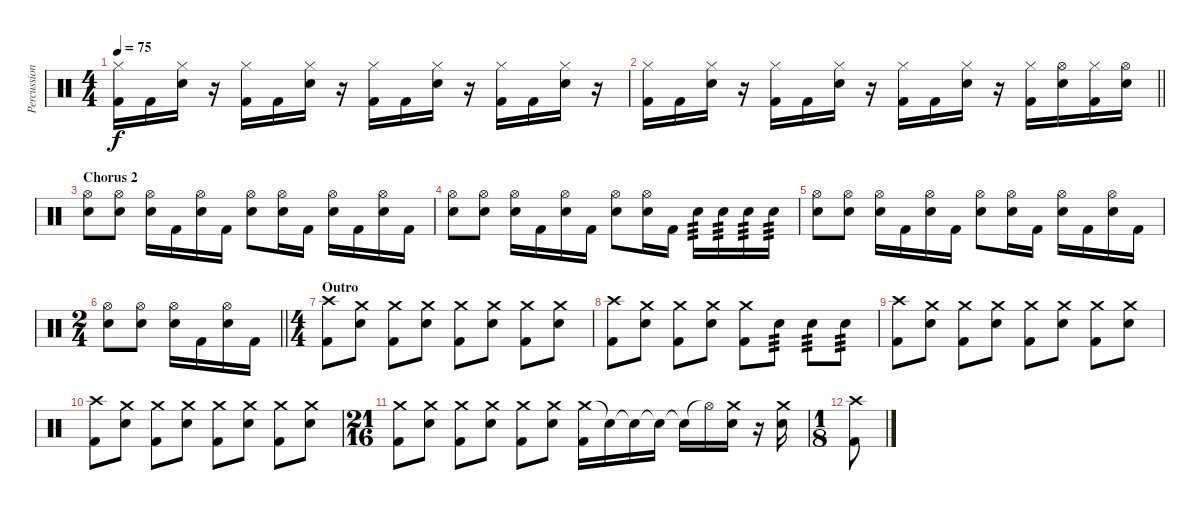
\track ("Percussion" "Percussion") {instrument percussion}
\staff {score}
\articulation defaults
\ts (4 4)
\tempo 75
\clef neutral
\ks c
("Hi-Hat (closed)" "Kick (hit) 2").16{dy f} "Kick (hit) 2".16 ("Hi-Hat (closed)" "Electric Snare (hit)").16 r.16 ("Hi-Hat (closed)" "Kick (hit) 2").16 "Kick (hit) 2".16 ("Hi-Hat (closed)" "Electric Snare (hit)").16 r.16 ("Hi-Hat (closed)" "Kick (hit) 2").16 "Kick (hit) 2".16 ("Hi-Hat (closed)" "Electric Snare (hit)").16 r.16 ("Hi-Hat (closed)" "Kick (hit) 2").16 "Kick (hit) 2".16 ("Hi-Hat (closed)" "Electric Snare (hit)").16 r.16 |
\barLineRight lightlight
("Hi-Hat (closed)" "Kick (hit) 2").16 "Kick (hit) 2".16 ("Hi-Hat (closed)" "Electric Snare (hit)").16 r.16 ("Hi-Hat (closed)" "Kick (hit) 2").16 "Kick (hit) 2".16 ("Hi-Hat (closed)" "Electric Snare (hit)").16 r.16 ("Hi-Hat (closed)" "Kick (hit) 2").16 "Kick (hit) 2".16 ("Hi-Hat (closed)" "Electric Snare (hit)").16 r.16 ("Hi-Hat (closed)" "Kick (hit) 2").16 ("Hi-Hat (open)" "Electric Snare (hit)").16 ("Hi-Hat (closed)" "Kick (hit) 2").16 ("Hi-Hat (open)" "Electric Snare (hit)").16 |
\section ("" "Chorus 2")
("Hi-Hat (open)" "Snare (hit) 2").8 ("Hi-Hat (open)" "Snare (hit) 2").8 ("Hi-Hat (open)" "Snare (hit) 2").16 "Kick (hit) 2".16 ("Hi-Hat (open)" "Snare (hit) 2").16 "Kick (hit) 2".16 ("Hi-Hat (open)" "Snare (hit) 2").8 ("Hi-Hat (open)" "Snare (hit) 2").16 "Kick (hit) 2".16 ("Hi-Hat (open)" "Snare (hit) 2").16 "Kick (hit) 2".16 ("Hi-Hat (open)" "Snare (hit) 2").16 "Kick (hit) 2".16 |
("Hi-Hat (open)" "Snare (hit) 2").8 ("Hi-Hat (open)" "Snare (hit) 2").8 ("Hi-Hat (open)" "Snare (hit) 2").16 "Kick (hit) 2".16 ("Hi-Hat (open)" "Snare (hit) 2").16 "Kick (hit) 2".16 ("Hi-Hat (open)" "Snare (hit) 2").8 ("Hi-Hat (open)" "Snare (hit) 2").16 "Kick (hit) 2".16 "Snare (hit) 2".16{tp 3} "Snare (hit) 2".16{tp 3} "Snare (hit) 2".16{tp 3} "Snare (hit) 2".16{tp 3} |
("Hi-Hat (open)" "Snare (hit) 2").8 ("Hi-Hat (open)" "Snare (hit) 2").8 ("Hi-Hat (open)" "Snare (hit) 2").16 "Kick (hit) 2".16 ("Hi-Hat (open)" "Snare (hit) 2").16 "Kick (hit) 2".16 ("Hi-Hat (open)" "Snare (hit) 2").8 ("Hi-Hat (open)" "Snare (hit) 2").16 "Kick (hit) 2".16 ("Hi-Hat (open)" "Snare (hit) 2").16 "Kick (hit) 2".16 ("Hi-Hat (open)" "Snare (hit) 2").16 "Kick (hit) 2".16 |
\ts (2 4)
\barLineRight lightlight
("Hi-Hat (open)" "Snare (hit) 2").8 ("Hi-Hat (open)" "Snare (hit) 2").8 ("Hi-Hat (open)" "Snare (hit) 2").16 "Kick (hit) 2".16 ("Hi-Hat (open)" "Snare (hit) 2").16 "Kick (hit) 2".16 |
\ts (4 4)
\section ("" "Outro")
("Crash high (hit)" "Kick (hit) 2").8 ("Crash medium (hit)" "Snare (hit) 2").8 ("Crash medium (hit)" "Kick (hit) 2").8 ("Crash medium (hit)" "Snare (hit) 2").8 ("Crash medium (hit)" "Kick (hit) 2").8 ("Crash medium (hit)" "Snare (hit) 2").8 ("Crash medium (hit)" "Kick (hit) 2").8 ("Crash medium (hit)" "Snare (hit) 2").8 |
("Crash high (hit)" "Kick (hit) 2").8 ("Crash medium (hit)" "Snare (hit) 2").8 ("Crash medium (hit)" "Kick (hit) 2").8 ("Crash medium (hit)" "Snare (hit) 2").8 ("Crash medium (hit)" "Kick (hit) 2").8 "Snare (hit) 2".8{tp 3} "Snare (hit) 2".8{tp 3} "Snare (hit) 2".8{tp 3} |
("Crash high (hit)" "Kick (hit) 2").8 ("Crash medium (hit)" "Snare (hit) 2").8 ("Crash medium (hit)" "Kick (hit) 2").8 ("Crash medium (hit)" "Snare (hit) 2").8 ("Crash medium (hit)" "Kick (hit) 2").8 ("Crash medium (hit)" "Snare (hit) 2").8 ("Crash medium (hit)" "Kick (hit) 2").8 ("Crash medium (hit)" "Snare (hit) 2").8 |
("Crash high (hit)" "Kick (hit) 2").8 ("Crash medium (hit)" "Snare (hit) 2").8 ("Crash medium (hit)" "Kick (hit) 2").8 ("Crash medium (hit)" "Snare (hit) 2").8 ("Crash medium (hit)" "Kick (hit) 2").8 ("Crash medium (hit)" "Snare (hit) 2").8 ("Crash medium (hit)" "Kick (hit) 2").8 ("Crash medium (hit)" "Snare (hit) 2").8 |
\ts (21 16)
("Crash medium (hit)" "Kick (hit) 2").8 ("Crash medium (hit)" "Snare (hit) 2").8 ("Crash medium (hit)" "Kick (hit) 2").8 ("Crash medium (hit)" "Snare (hit) 2").8 ("Crash medium (hit)" "Kick (hit) 2").8 ("Crash medium (hit)" "Snare (hit) 2").8 ("Crash medium (hit)" "Kick (hit) 2").16 "Snare (hit)"{t}.16 "Snare (hit)"{t}.16 "Snare (hit)"{t}.16 "Snare (hit)"{t}.16 "Hi-Hat (open)"{t}.16 ("Crash medium (hit)" "Electric Snare (hit)").16 r.16 ("Crash medium (hit)" "Electric Snare (hit)").16 |
\ts (1 8)
("Crash high (hit)" "Kick (hit) 2").8
